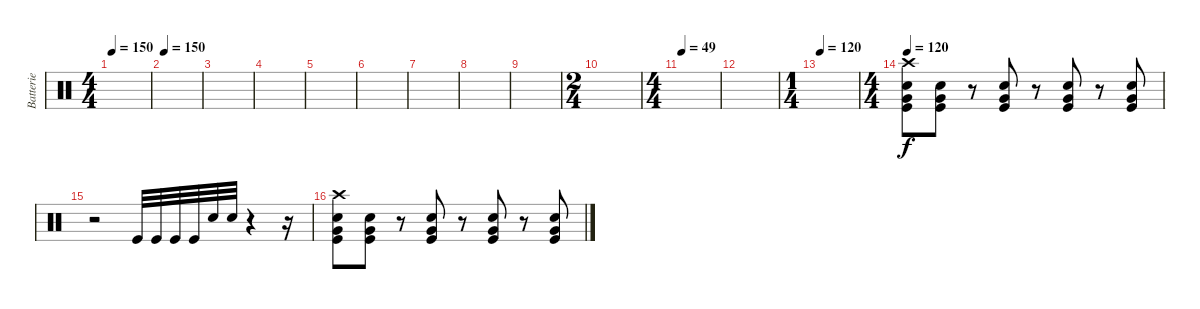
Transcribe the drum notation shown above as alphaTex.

\track ("Batterie" "Batterie") {instrument percussion}
\staff {score}
\articulation defaults
\ts (4 4)
\tempo 150
\clef neutral
\ks c
|
\tempo 150
|
|
|
|
|
|
|
|
\ts (2 4)
|
\ts (4 4)
\tempo 49
|
|
\ts (1 4)
\tempo 120
|
\ts (4 4)
\tempo 120
("Crash high (hit)" "Snare (hit) 2" "Very Low Tom (hit)" "Kick (hit)").8 ("Snare (hit) 2" "Very Low Tom (hit)" "Kick (hit)").8 r.8 ("Snare (hit) 2" "Very Low Tom (hit)" "Kick (hit)").8 r.8 ("Snare (hit) 2" "Very Low Tom (hit)" "Kick (hit)").8 r.8 ("Snare (hit) 2" "Very Low Tom (hit)" "Kick (hit)").8 |
r.2 "Kick (hit)".32 "Kick (hit)".32 "Kick (hit)".32 "Kick (hit)".32 "Snare (hit) 2".32 "Snare (hit) 2".32 r.4 r.16 |
("Crash high (hit)" "Snare (hit) 2" "Very Low Tom (hit)" "Kick (hit)").8 ("Snare (hit) 2" "Very Low Tom (hit)" "Kick (hit)").8 r.8 ("Snare (hit) 2" "Very Low Tom (hit)" "Kick (hit)").8 r.8 ("Snare (hit) 2" "Very Low Tom (hit)" "Kick (hit)").8 r.8 ("Snare (hit) 2" "Very Low Tom (hit)" "Kick (hit)").8
